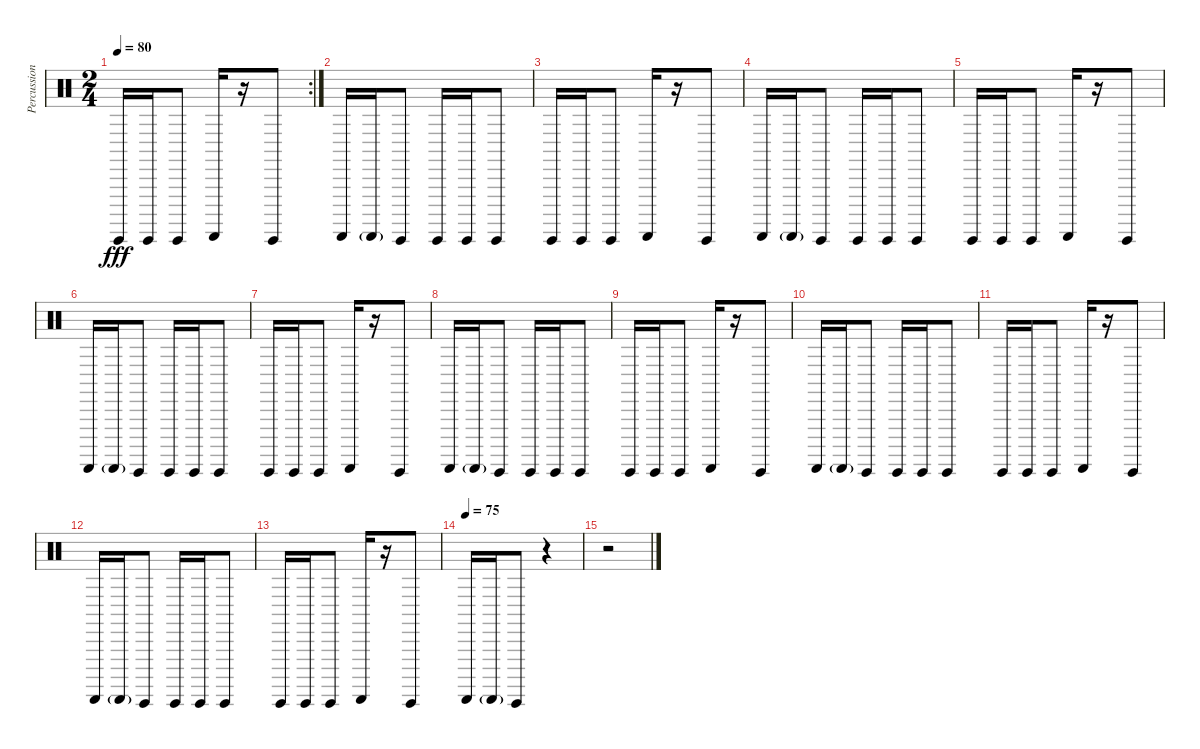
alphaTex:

\track ("Percussions" "Percussion") {instrument percussion}
\staff {score}
\articulation defaults
\rc 2
\ts (2 4)
\tempo 80
\clef neutral
\ks c "Guiro (hit)".16{dy fff} "Guiro (hit)".16 "Guiro (hit)".8 "Guiro (scrap-return)".16
r.16 "Guiro (hit)".8 |
"Guiro (scrap-return)".16 "Guiro (scrap-return)"{g}.16 "Guiro (hit)".8 "Guiro (hit)".16 "Guiro (hit)".16 "Guiro (hit)".8 |
"Guiro (hit)".16 "Guiro (hit)".16 "Guiro (hit)".8 "Guiro (scrap-return)".16 r.16 "Guiro (hit)".8 |
"Guiro (scrap-return)".16 "Guiro (scrap-return)"{g}.16 "Guiro (hit)".8 "Guiro (hit)".16 "Guiro (hit)".16 "Guiro (hit)".8 |
"Guiro (hit)".16 "Guiro (hit)".16 "Guiro (hit)".8 "Guiro (scrap-return)".16 r.16 "Guiro (hit)".8 |
"Guiro (scrap-return)".16 "Guiro (scrap-return)"{g}.16 "Guiro (hit)".8 "Guiro (hit)".16 "Guiro (hit)".16 "Guiro (hit)".8 |
"Guiro (hit)".16 "Guiro (hit)".16 "Guiro (hit)".8 "Guiro (scrap-return)".16 r.16 "Guiro (hit)".8 |
"Guiro (scrap-return)".16 "Guiro (scrap-return)"{g}.16 "Guiro (hit)".8 "Guiro (hit)".16 "Guiro (hit)".16 "Guiro (hit)".8 |
"Guiro (hit)".16 "Guiro (hit)".16 "Guiro (hit)".8 "Guiro (scrap-return)".16 r.16 "Guiro (hit)".8 |
"Guiro (scrap-return)".16 "Guiro (scrap-return)"{g}.16 "Guiro (hit)".8 "Guiro (hit)".16 "Guiro (hit)".16 "Guiro (hit)".8 |
"Guiro (hit)".16 "Guiro (hit)".16 "Guiro (hit)".8 "Guiro (scrap-return)".16 r.16 "Guiro (hit)".8 |
"Guiro (scrap-return)".16 "Guiro (scrap-return)"{g}.16 "Guiro (hit)".8 "Guiro (hit)".16 "Guiro (hit)".16 "Guiro (hit)".8 |
"Guiro (hit)".16 "Guiro (hit)".16 "Guiro (hit)".8 "Guiro (scrap-return)".16 r.16 "Guiro (hit)".8 |
\tempo (75)
"Guiro (scrap-return)".16 "Guiro (scrap-return)"{g}.16 "Guiro (hit)".8 r.4 |
r.2
